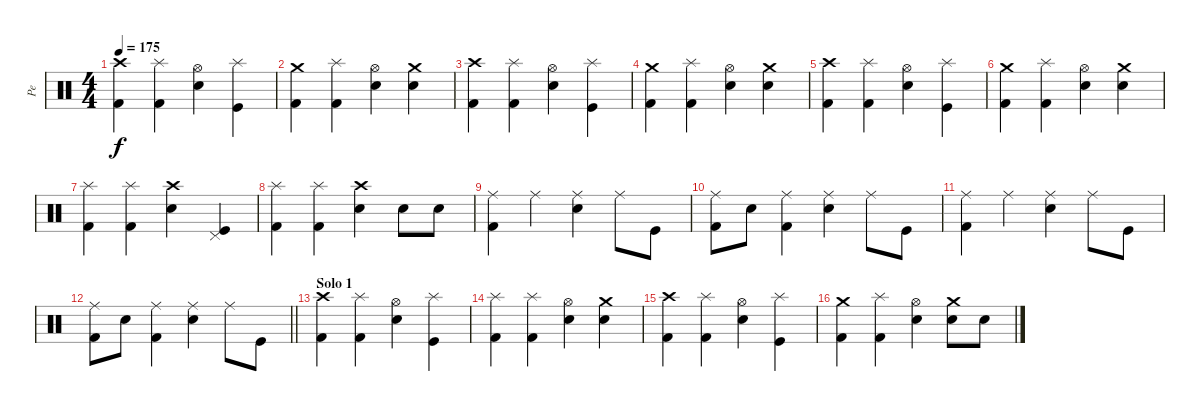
\track ("Pe" "Pe") {instrument percussion}
\staff {score}
\articulation defaults
\ts (4 4)
\tempo 175
\clef neutral
\ks c
("Kick (hit) 2" "Crash high (hit)").4{dy f} ("Kick (hit) 2" "Splash (hit)").4 ("Electric Snare (hit)" "Hi-Hat (open)").4 ("Kick (hit)" "Splash (hit)").4 |
("Kick (hit) 2" "Crash medium (hit)").4 ("Kick (hit) 2" "Splash (hit)").4 ("Electric Snare (hit)" "Hi-Hat (open)").4 ("Electric Snare (hit)" "Crash medium (hit)").4 |
("Kick (hit) 2" "Crash high (hit)").4 ("Kick (hit) 2" "Splash (hit)").4 ("Electric Snare (hit)" "Hi-Hat (open)").4 ("Kick (hit)" "Splash (hit)").4 |
("Kick (hit) 2" "Crash medium (hit)").4 ("Kick (hit) 2" "Splash (hit)").4 ("Electric Snare (hit)" "Hi-Hat (open)").4 ("Electric Snare (hit)" "Crash medium (hit)").4 |
("Kick (hit) 2" "Crash high (hit)").4 ("Kick (hit) 2" "Splash (hit)").4 ("Electric Snare (hit)" "Hi-Hat (open)").4 ("Kick (hit)" "Splash (hit)").4 |
("Kick (hit) 2" "Crash medium (hit)").4 ("Kick (hit) 2" "Splash (hit)").4 ("Electric Snare (hit)" "Hi-Hat (open)").4 ("Electric Snare (hit)" "Crash medium (hit)").4 |
("Kick (hit) 2" "Splash (hit)").4 ("Kick (hit) 2" "Splash (hit)").4 ("Electric Snare (hit)" "Crash high (hit)").4 ("Kick (hit)" "Pedal Hi-Hat (hit)").4 |
("Kick (hit) 2" "Splash (hit)").4 ("Kick (hit) 2" "Splash (hit)").4 ("Electric Snare (hit)" "Crash high (hit)").4 "Electric Snare (hit)".8 "Electric Snare (hit)".8 |
("Kick (hit) 2" "Ride (middle)").4{volume 11} "Ride (middle)".4 ("Electric Snare (hit)" "Ride (middle)").4 "Ride (middle)".8 "Kick (hit)".8 |
("Kick (hit) 2" "Ride (middle)").8 "Electric Snare (hit)".8 ("Kick (hit) 2" "Ride (middle)").4 ("Electric Snare (hit)" "Ride (middle)").4 "Ride (middle)".8 "Kick (hit)".8 |
("Kick (hit) 2" "Ride (middle)").4 "Ride (middle)".4 ("Electric Snare (hit)" "Ride (middle)").4 "Ride (middle)".8 "Kick (hit)".8 |
\barLineRight lightlight
("Kick (hit) 2" "Ride (middle)").8 "Electric Snare (hit)".8 ("Kick (hit) 2" "Ride (middle)").4 ("Electric Snare (hit)" "Ride (middle)").4 "Ride (middle)".8 "Kick (hit)".8 |
\section ("" "Solo 1")
("Kick (hit) 2" "Crash high (hit)").4{volume 15} ("Kick (hit) 2" "Splash (hit)").4 ("Electric Snare (hit)" "Hi-Hat (open)").4 ("Kick (hit)" "Splash (hit)").4 |
("Kick (hit) 2" "Splash (hit)").4 ("Kick (hit) 2" "Splash (hit)").4 ("Electric Snare (hit)" "Hi-Hat (open)").4 ("Electric Snare (hit)" "Crash medium (hit)").4 |
("Kick (hit) 2" "Crash high (hit)").4 ("Kick (hit) 2" "Splash (hit)").4 ("Electric Snare (hit)" "Hi-Hat (open)").4 ("Kick (hit)" "Splash (hit)").4 |
("Kick (hit) 2" "Crash medium (hit)").4 ("Kick (hit) 2" "Splash (hit)").4 ("Electric Snare (hit)" "Hi-Hat (open)").4 ("Electric Snare (hit)" "Crash medium (hit)").8 "Electric Snare (hit)".8
